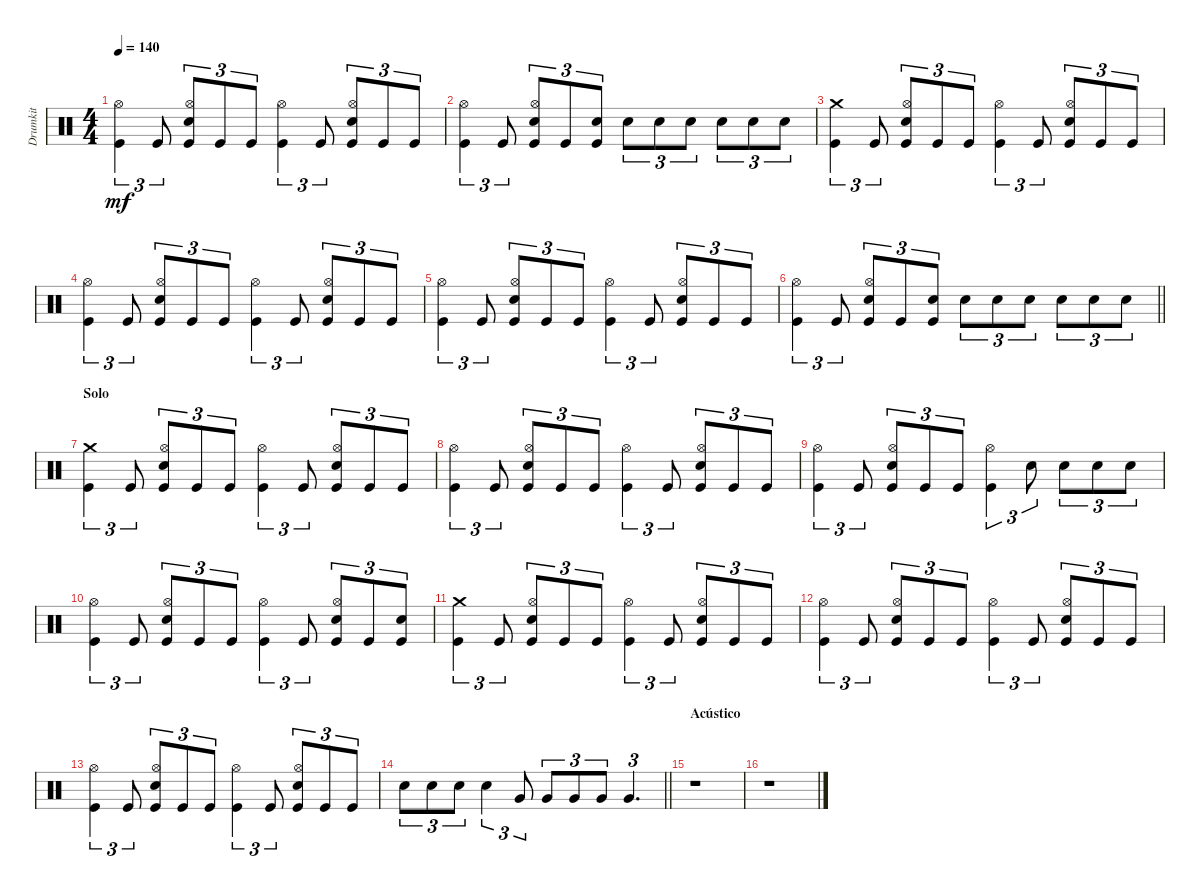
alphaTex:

\track ("Drumkit" "Drumkit") {instrument percussion}
\staff {score}
\articulation defaults
\ts (4 4)
\tempo 140
\clef neutral
\ks c
("Kick (hit)" "Hi-Hat (open)").4{tu (3 2) dy mf} "Kick (hit)".8{tu (3 2)} ("Kick (hit)" "Hi-Hat (open)" "Snare (hit) 2").8{tu (3 2)} "Kick (hit)".8{tu (3 2)} "Kick (hit)".8{tu (3 2)} ("Kick (hit)" "Hi-Hat (open)").4{tu (3 2)} "Kick (hit)".8{tu (3 2)} ("Kick (hit)" "Hi-Hat (open)" "Snare (hit) 2").8{tu (3 2)} "Kick (hit)".8{tu (3 2)} "Kick (hit)".8{tu (3 2)} |
("Kick (hit)" "Hi-Hat (open)").4{tu (3 2)} "Kick (hit)".8{tu (3 2)} ("Kick (hit)" "Hi-Hat (open)" "Snare (hit) 2").8{tu (3 2)} "Kick (hit)".8{tu (3 2)} ("Kick (hit)" "Snare (hit) 2").8{tu (3 2)} "Snare (hit) 2".8{tu (3 2)} "Snare (hit) 2".8{tu (3 2)} "Snare (hit) 2".8{tu (3 2)} "Snare (hit) 2".8{tu (3 2)} "Snare (hit) 2".8{tu (3 2)} "Snare (hit) 2".8{tu (3 2)} |
("Kick (hit)" "Crash medium (hit)").4{tu (3 2)} "Kick (hit)".8{tu (3 2)} ("Kick (hit)" "Hi-Hat (open)" "Snare (hit) 2").8{tu (3 2)} "Kick (hit)".8{tu (3 2)} "Kick (hit)".8{tu (3 2)} ("Kick (hit)" "Hi-Hat (open)").4{tu (3 2)} "Kick (hit)".8{tu (3 2)} ("Kick (hit)" "Hi-Hat (open)" "Snare (hit) 2").8{tu (3 2)} "Kick (hit)".8{tu (3 2)} "Kick (hit)".8{tu (3 2)} |
("Kick (hit)" "Hi-Hat (open)").4{tu (3 2)} "Kick (hit)".8{tu (3 2)} ("Kick (hit)" "Hi-Hat (open)" "Snare (hit) 2").8{tu (3 2)} "Kick (hit)".8{tu (3 2)} "Kick (hit)".8{tu (3 2)} ("Kick (hit)" "Hi-Hat (open)").4{tu (3 2)} "Kick (hit)".8{tu (3 2)} ("Kick (hit)" "Hi-Hat (open)" "Snare (hit) 2").8{tu (3 2)} "Kick (hit)".8{tu (3 2)} "Kick (hit)".8{tu (3 2)} |
("Kick (hit)" "Hi-Hat (open)").4{tu (3 2)} "Kick (hit)".8{tu (3 2)} ("Kick (hit)" "Hi-Hat (open)" "Snare (hit) 2").8{tu (3 2)} "Kick (hit)".8{tu (3 2)} "Kick (hit)".8{tu (3 2)} ("Kick (hit)" "Hi-Hat (open)").4{tu (3 2)} "Kick (hit)".8{tu (3 2)} ("Kick (hit)" "Hi-Hat (open)" "Snare (hit) 2").8{tu (3 2)} "Kick (hit)".8{tu (3 2)} "Kick (hit)".8{tu (3 2)} |
\barLineRight lightlight
("Kick (hit)" "Hi-Hat (open)").4{tu (3 2)} "Kick (hit)".8{tu (3 2)} ("Kick (hit)" "Hi-Hat (open)" "Snare (hit) 2").8{tu (3 2)} "Kick (hit)".8{tu (3 2)} ("Kick (hit)" "Snare (hit) 2").8{tu (3 2)} "Snare (hit) 2".8{tu (3 2)} "Snare (hit) 2".8{tu (3 2)} "Snare (hit) 2".8{tu (3 2)} "Snare (hit) 2".8{tu (3 2)} "Snare (hit) 2".8{tu (3 2)} "Snare (hit) 2".8{tu (3 2)} |
\section ("" "Solo")
("Kick (hit)" "Crash medium (hit)").4{tu (3 2)} "Kick (hit)".8{tu (3 2)} ("Kick (hit)" "Hi-Hat (open)" "Snare (hit) 2").8{tu (3 2)} "Kick (hit)".8{tu (3 2)} "Kick (hit)".8{tu (3 2)} ("Kick (hit)" "Hi-Hat (open)").4{tu (3 2)} "Kick (hit)".8{tu (3 2)} ("Kick (hit)" "Hi-Hat (open)" "Snare (hit) 2").8{tu (3 2)} "Kick (hit)".8{tu (3 2)} "Kick (hit)".8{tu (3 2)} |
("Kick (hit)" "Hi-Hat (open)").4{tu (3 2)} "Kick (hit)".8{tu (3 2)} ("Kick (hit)" "Hi-Hat (open)" "Snare (hit) 2").8{tu (3 2)} "Kick (hit)".8{tu (3 2)} "Kick (hit)".8{tu (3 2)} ("Kick (hit)" "Hi-Hat (open)").4{tu (3 2)} "Kick (hit)".8{tu (3 2)} ("Kick (hit)" "Hi-Hat (open)" "Snare (hit) 2").8{tu (3 2)} "Kick (hit)".8{tu (3 2)} "Kick (hit)".8{tu (3 2)} |
("Kick (hit)" "Hi-Hat (open)").4{tu (3 2)} "Kick (hit)".8{tu (3 2)} ("Kick (hit)" "Hi-Hat (open)" "Snare (hit) 2").8{tu (3 2)} "Kick (hit)".8{tu (3 2)} "Kick (hit)".8{tu (3 2)} ("Kick (hit)" "Hi-Hat (open)").4{tu (3 2)} "Snare (hit) 2".8{tu (3 2)} "Snare (hit) 2".8{tu (3 2)} "Snare (hit) 2".8{tu (3 2)} "Snare (hit) 2".8{tu (3 2)} |
("Kick (hit)" "Hi-Hat (open)").4{tu (3 2)} "Kick (hit)".8{tu (3 2)} ("Kick (hit)" "Hi-Hat (open)" "Snare (hit) 2").8{tu (3 2)} "Kick (hit)".8{tu (3 2)} "Kick (hit)".8{tu (3 2)} ("Kick (hit)" "Hi-Hat (open)").4{tu (3 2)} "Kick (hit)".8{tu (3 2)} ("Kick (hit)" "Hi-Hat (open)" "Snare (hit) 2").8{tu (3 2)} "Kick (hit)".8{tu (3 2)} ("Kick (hit)" "Snare (hit) 2").8{tu (3 2)} |
("Kick (hit)" "Crash medium (hit)").4{tu (3 2)} "Kick (hit)".8{tu (3 2)} ("Kick (hit)" "Hi-Hat (open)" "Snare (hit) 2").8{tu (3 2)} "Kick (hit)".8{tu (3 2)} "Kick (hit)".8{tu (3 2)} ("Kick (hit)" "Hi-Hat (open)").4{tu (3 2)} "Kick (hit)".8{tu (3 2)} ("Kick (hit)" "Hi-Hat (open)" "Snare (hit) 2").8{tu (3 2)} "Kick (hit)".8{tu (3 2)} "Kick (hit)".8{tu (3 2)} |
("Kick (hit)" "Hi-Hat (open)").4{tu (3 2)} "Kick (hit)".8{tu (3 2)} ("Kick (hit)" "Hi-Hat (open)" "Snare (hit) 2").8{tu (3 2)} "Kick (hit)".8{tu (3 2)} "Kick (hit)".8{tu (3 2)} ("Kick (hit)" "Hi-Hat (open)").4{tu (3 2)} "Kick (hit)".8{tu (3 2)} ("Kick (hit)" "Hi-Hat (open)" "Snare (hit) 2").8{tu (3 2)} "Kick (hit)".8{tu (3 2)} "Kick (hit)".8{tu (3 2)} |
("Kick (hit)" "Hi-Hat (open)").4{tu (3 2)} "Kick (hit)".8{tu (3 2)} ("Kick (hit)" "Hi-Hat (open)" "Snare (hit) 2").8{tu (3 2)} "Kick (hit)".8{tu (3 2)} "Kick (hit)".8{tu (3 2)} ("Kick (hit)" "Hi-Hat (open)").4{tu (3 2)} "Kick (hit)".8{tu (3 2)} ("Kick (hit)" "Hi-Hat (open)" "Snare (hit) 2").8{tu (3 2)} "Kick (hit)".8{tu (3 2)} "Kick (hit)".8{tu (3 2)} |
\barLineRight lightlight "Snare (hit) 2".8{tu (3 2)} "Snare (hit) 2".8{tu (3 2)} "Snare (hit) 2".8{tu (3 2)} "Snare (hit) 2".4{tu (3 2)} "Very Low Tom (hit)".8{tu (3 2)} "Very Low Tom (hit)".8{tu (3 2)} "Very Low Tom (hit)".8{tu (3 2)} "Very Low Tom (hit)".8{tu (3 2)} "Very Low Tom (hit)".4{d tu (3 2)}
|
\section ("" "Acústico")
r.1 |
r.1
